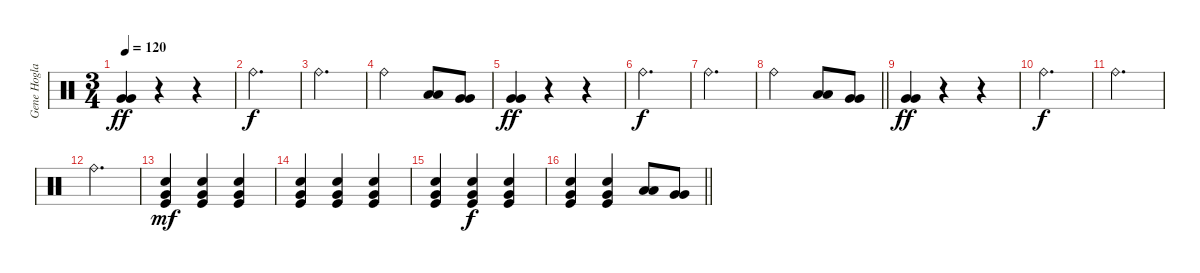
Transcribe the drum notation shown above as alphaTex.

\track ("Gene Hoglan" "Gene Hogla") {instrument percussion}
\staff {score}
\articulation defaults
\ts (3 4)
\section ("" "")
\tempo 120
\clef neutral
\ks c
("Very Low Tom (hit)" "Very Low Tom (hit)").4{dy ff} r.4 r.4 |
"Ride (bell)".2{d dy f} |
"Ride (bell)".2{d} |
"Ride (bell)".2 ("Low Tom (hit)" "Low Tom (hit)").8 ("Very Low Tom (hit)" "Very Low Tom (hit)").8 |
("Very Low Tom (hit)" "Very Low Tom (hit)").4{dy ff} r.4 r.4 |
"Ride (bell)".2{d dy f} |
"Ride (bell)".2{d} |
\barLineRight lightlight "Ride (bell)".2
("Low Tom (hit)" "Low Tom (hit)").8 ("Very Low Tom (hit)" "Very Low Tom (hit)").8 |
\section ("" "")
("Very Low Tom (hit)" "Very Low Tom (hit)").4{dy ff} r.4 r.4 |
"Ride (bell)".2{d dy f} |
"Ride (bell)".2{d} |
"Ride (bell)".2{d} |
("Snare (hit) 2" "Very Low Tom (hit)" "Kick (hit)").4{dy mf} ("Snare (hit) 2" "Very Low Tom (hit)" "Kick (hit)").4 ("Snare (hit) 2" "Very Low Tom (hit)" "Kick (hit)").4 |
("Snare (hit) 2" "Very Low Tom (hit)" "Kick (hit)").4 ("Snare (hit) 2" "Very Low Tom (hit)" "Kick (hit)").4 ("Snare (hit) 2" "Very Low Tom (hit)" "Kick (hit)").4 |
("Snare (hit) 2" "Very Low Tom (hit)" "Kick (hit)").4 ("Snare (hit) 2" "Very Low Tom (hit)" "Kick (hit)").4{dy f} ("Snare (hit) 2" "Very Low Tom (hit)" "Kick (hit)").4 |
\barLineRight lightlight
("Snare (hit) 2" "Very Low Tom (hit)" "Kick (hit)").4 ("Snare (hit) 2" "Very Low Tom (hit)" "Kick (hit)").4 ("Low Tom (hit)" "Low Tom (hit)").8 ("Very Low Tom (hit)" "Very Low Tom (hit)").8
